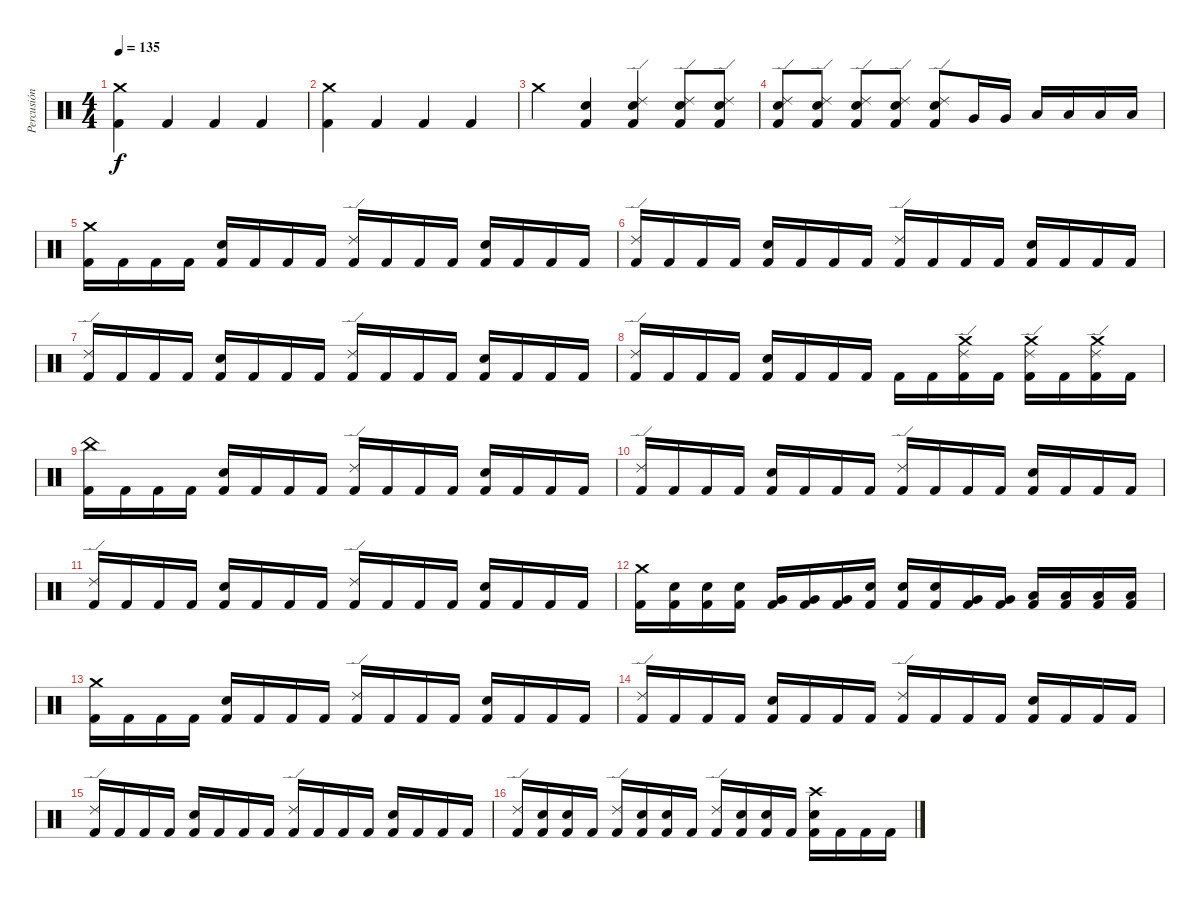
\track ("Percusión" "Percusión") {instrument percussion}
\staff {score}
\articulation defaults
\ts (4 4)
\tempo 135
\clef neutral
\ks c
("Crash medium (hit)" "Kick (hit) 2").4{dy f} "Kick (hit) 2".4 "Kick (hit) 2".4 "Kick (hit) 2".4 |
("Crash medium (hit)" "Kick (hit) 2").4 "Kick (hit) 2".4 "Kick (hit) 2".4 "Kick (hit) 2".4 |
"Crash medium (hit)".4{volume 10} ("Snare (hit) 2" "Kick (hit) 2").4 ("Ride (edge) 2" "Snare (hit) 2" "Kick (hit) 2").4 ("Ride (edge) 2" "Snare (hit) 2" "Kick (hit) 2").8 ("Ride (edge) 2" "Snare (hit) 2" "Kick (hit) 2").8 |
("Ride (edge) 2" "Snare (hit) 2" "Kick (hit) 2").8 ("Ride (edge) 2" "Snare (hit) 2" "Kick (hit) 2").8{volume 16} ("Ride (edge) 2" "Snare (hit) 2" "Kick (hit) 2").8 ("Ride (edge) 2" "Snare (hit) 2" "Kick (hit) 2").8 ("Ride (edge) 2" "Snare (hit) 2" "Kick (hit) 2").8 "Very Low Tom (hit)".16 "Very Low Tom (hit)".16 "Low Tom (hit)".16 "Low Tom (hit)".16 "Low Floor Tom (hit)".16 "Low Floor Tom (hit)".16 |
("Crash medium (hit)" "Kick (hit) 2").16 "Kick (hit) 2".16 "Kick (hit) 2".16 "Kick (hit) 2".16 ("Snare (hit) 2" "Kick (hit) 2").16 "Kick (hit) 2".16 "Kick (hit) 2".16 "Kick (hit) 2".16 ("Ride (edge) 2" "Kick (hit) 2").16 "Kick (hit) 2".16 "Kick (hit) 2".16 "Kick (hit) 2".16 ("Snare (hit) 2" "Kick (hit) 2").16 "Kick (hit) 2".16 "Kick (hit) 2".16 "Kick (hit) 2".16 |
("Ride (edge) 2" "Kick (hit) 2").16 "Kick (hit) 2".16 "Kick (hit) 2".16 "Kick (hit) 2".16 ("Snare (hit) 2" "Kick (hit) 2").16 "Kick (hit) 2".16 "Kick (hit) 2".16 "Kick (hit) 2".16 ("Ride (edge) 2" "Kick (hit) 2").16 "Kick (hit) 2".16 "Kick (hit) 2".16 "Kick (hit) 2".16 ("Snare (hit) 2" "Kick (hit) 2").16 "Kick (hit) 2".16 "Kick (hit) 2".16 "Kick (hit) 2".16 |
("Ride (edge) 2" "Kick (hit) 2").16 "Kick (hit) 2".16 "Kick (hit) 2".16 "Kick (hit) 2".16 ("Snare (hit) 2" "Kick (hit) 2").16 "Kick (hit) 2".16 "Kick (hit) 2".16 "Kick (hit) 2".16 ("Ride (edge) 2" "Kick (hit) 2").16 "Kick (hit) 2".16 "Kick (hit) 2".16 "Kick (hit) 2".16 ("Snare (hit) 2" "Kick (hit) 2").16 "Kick (hit) 2".16 "Kick (hit) 2".16 "Kick (hit) 2".16 |
("Ride (edge) 2" "Kick (hit) 2").16 "Kick (hit) 2".16 "Kick (hit) 2".16 "Kick (hit) 2".16 ("Snare (hit) 2" "Kick (hit) 2").16 "Kick (hit) 2".16 "Kick (hit) 2".16 "Kick (hit) 2".16 "Kick (hit) 2".16 "Kick (hit) 2".16 ("Ride (edge) 2" "Crash medium (hit)" "Kick (hit) 2").16 "Kick (hit) 2".16 ("Ride (edge) 2" "Crash medium (hit)" "Kick (hit) 2").16 "Kick (hit) 2".16 ("Ride (edge) 2" "Crash medium (hit)" "Kick (hit) 2").16 "Kick (hit) 2".16 |
("China (hit)" "Kick (hit) 2").16 "Kick (hit) 2".16 "Kick (hit) 2".16 "Kick (hit) 2".16 ("Snare (hit) 2" "Kick (hit) 2").16 "Kick (hit) 2".16 "Kick (hit) 2".16 "Kick (hit) 2".16 ("Ride (edge) 2" "Kick (hit) 2").16 "Kick (hit) 2".16 "Kick (hit) 2".16 "Kick (hit) 2".16 ("Snare (hit) 2" "Kick (hit) 2").16 "Kick (hit) 2".16 "Kick (hit) 2".16 "Kick (hit) 2".16 |
("Ride (edge) 2" "Kick (hit) 2").16 "Kick (hit) 2".16 "Kick (hit) 2".16 "Kick (hit) 2".16 ("Snare (hit) 2" "Kick (hit) 2").16 "Kick (hit) 2".16 "Kick (hit) 2".16 "Kick (hit) 2".16 ("Ride (edge) 2" "Kick (hit) 2").16 "Kick (hit) 2".16 "Kick (hit) 2".16 "Kick (hit) 2".16 ("Snare (hit) 2" "Kick (hit) 2").16 "Kick (hit) 2".16 "Kick (hit) 2".16 "Kick (hit) 2".16 |
("Ride (edge) 2" "Kick (hit) 2").16 "Kick (hit) 2".16 "Kick (hit) 2".16 "Kick (hit) 2".16 ("Snare (hit) 2" "Kick (hit) 2").16 "Kick (hit) 2".16 "Kick (hit) 2".16 "Kick (hit) 2".16 ("Ride (edge) 2" "Kick (hit) 2").16 "Kick (hit) 2".16 "Kick (hit) 2".16 "Kick (hit) 2".16 ("Snare (hit) 2" "Kick (hit) 2").16 "Kick (hit) 2".16 "Kick (hit) 2".16 "Kick (hit) 2".16 |
("Crash medium (hit)" "Kick (hit) 2").16 ("Snare (hit) 2" "Kick (hit) 2").16 ("Snare (hit) 2" "Kick (hit) 2").16 ("Snare (hit) 2" "Kick (hit) 2").16 ("Very Low Tom (hit)" "Kick (hit) 2").16 ("Very Low Tom (hit)" "Kick (hit) 2").16 ("Very Low Tom (hit)" "Kick (hit) 2").16 ("Snare (hit) 2" "Kick (hit) 2").16 ("Snare (hit) 2" "Kick (hit) 2").16 ("Snare (hit) 2" "Kick (hit) 2").16 ("Very Low Tom (hit)" "Kick (hit) 2").16 ("Very Low Tom (hit)" "Kick (hit) 2").16 ("Low Floor Tom (hit)" "Kick (hit) 2").16 ("Low Floor Tom (hit)" "Kick (hit) 2").16 ("Low Tom (hit)" "Kick (hit) 2").16 ("Low Tom (hit)" "Kick (hit) 2").16 |
("Crash medium (hit)" "Kick (hit) 2").16 "Kick (hit) 2".16 "Kick (hit) 2".16 "Kick (hit) 2".16 ("Snare (hit) 2" "Kick (hit) 2").16 "Kick (hit) 2".16 "Kick (hit) 2".16 "Kick (hit) 2".16 ("Ride (edge) 2" "Kick (hit) 2").16 "Kick (hit) 2".16 "Kick (hit) 2".16 "Kick (hit) 2".16 ("Snare (hit) 2" "Kick (hit) 2").16 "Kick (hit) 2".16 "Kick (hit) 2".16 "Kick (hit) 2".16 |
("Ride (edge) 2" "Kick (hit) 2").16 "Kick (hit) 2".16 "Kick (hit) 2".16 "Kick (hit) 2".16 ("Snare (hit) 2" "Kick (hit) 2").16 "Kick (hit) 2".16 "Kick (hit) 2".16 "Kick (hit) 2".16 ("Ride (edge) 2" "Kick (hit) 2").16 "Kick (hit) 2".16 "Kick (hit) 2".16 "Kick (hit) 2".16 ("Snare (hit) 2" "Kick (hit) 2").16 "Kick (hit) 2".16 "Kick (hit) 2".16 "Kick (hit) 2".16 |
("Ride (edge) 2" "Kick (hit) 2").16 "Kick (hit) 2".16 "Kick (hit) 2".16 "Kick (hit) 2".16 ("Snare (hit) 2" "Kick (hit) 2").16 "Kick (hit) 2".16 "Kick (hit) 2".16 "Kick (hit) 2".16 ("Ride (edge) 2" "Kick (hit) 2").16 "Kick (hit) 2".16 "Kick (hit) 2".16 "Kick (hit) 2".16 ("Snare (hit) 2" "Kick (hit) 2").16 "Kick (hit) 2".16 "Kick (hit) 2".16 "Kick (hit) 2".16 |
("Ride (edge) 2" "Kick (hit) 2").16 ("Snare (hit) 2" "Kick (hit) 2").16 ("Snare (hit) 2" "Kick (hit) 2").16 "Kick (hit) 2".16 ("Ride (edge) 2" "Kick (hit) 2").16 ("Snare (hit) 2" "Kick (hit) 2").16 ("Snare (hit) 2" "Kick (hit) 2").16 "Kick (hit) 2".16 ("Ride (edge) 2" "Kick (hit) 2").16 ("Snare (hit) 2" "Kick (hit) 2").16 ("Snare (hit) 2" "Kick (hit) 2").16 "Kick (hit) 2".16 ("Snare (hit) 2" "Crash high (hit)" "Kick (hit) 2").16 "Kick (hit) 2".16 "Kick (hit) 2".16 "Kick (hit) 2".16
